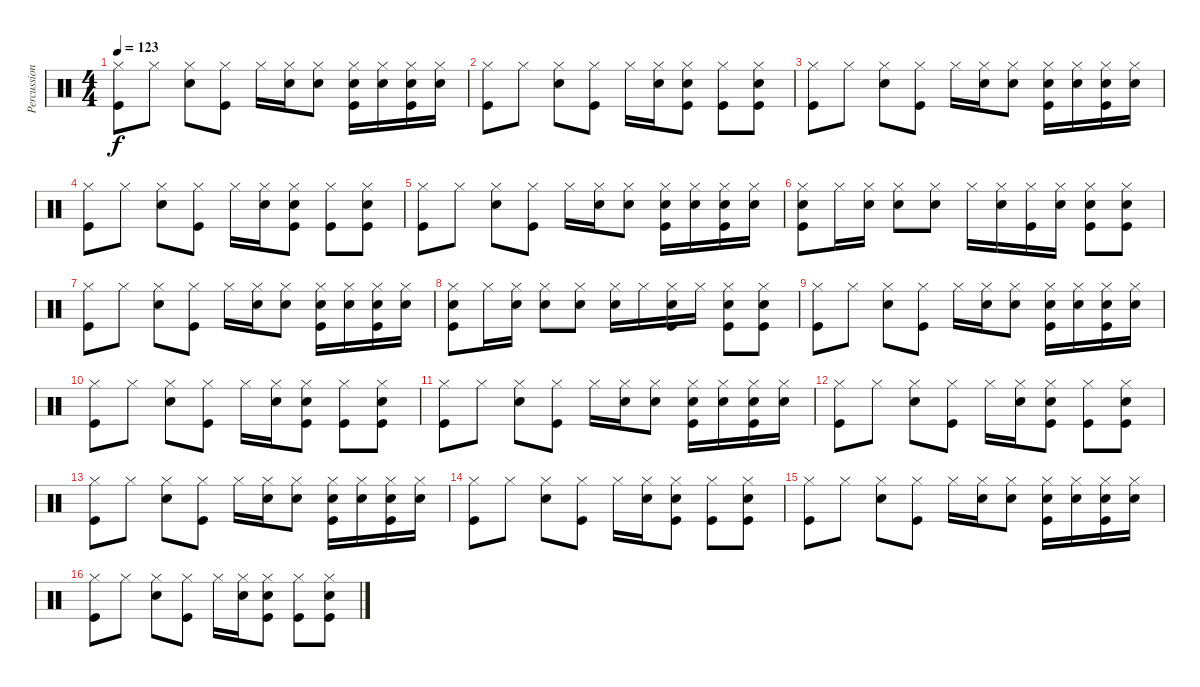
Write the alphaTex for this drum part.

\track ("Percussion" "Percussion") {instrument percussion}
\staff {score}
\articulation defaults
\ts (4 4)
\tempo 123
\clef neutral
\ks c
("Hi-Hat (closed)" "Kick (hit)").8{dy f} "Hi-Hat (closed)".8 ("Hi-Hat (closed)" "Snare (hit) 2").8 ("Hi-Hat (closed)" "Kick (hit)").8 "Hi-Hat (closed)".16 ("Hi-Hat (closed)" "Snare (hit) 2").16 ("Hi-Hat (closed)" "Snare (hit) 2").8 ("Hi-Hat (closed)" "Snare (hit) 2" "Kick (hit)").16 ("Hi-Hat (closed)" "Snare (hit) 2").16 ("Hi-Hat (closed)" "Snare (hit) 2" "Kick (hit)").16 ("Hi-Hat (closed)" "Snare (hit) 2").16 |
("Hi-Hat (closed)" "Kick (hit)").8 "Hi-Hat (closed)".8 ("Hi-Hat (closed)" "Snare (hit) 2").8 ("Hi-Hat (closed)" "Kick (hit)").8 "Hi-Hat (closed)".16 ("Hi-Hat (closed)" "Snare (hit) 2").16 ("Hi-Hat (closed)" "Snare (hit) 2" "Kick (hit)").8 ("Hi-Hat (closed)" "Kick (hit)").8 ("Hi-Hat (closed)" "Snare (hit) 2" "Kick (hit)").8 |
("Hi-Hat (closed)" "Kick (hit)").8 "Hi-Hat (closed)".8 ("Hi-Hat (closed)" "Snare (hit) 2").8 ("Hi-Hat (closed)" "Kick (hit)").8 "Hi-Hat (closed)".16 ("Hi-Hat (closed)" "Snare (hit) 2").16 ("Hi-Hat (closed)" "Snare (hit) 2").8 ("Hi-Hat (closed)" "Snare (hit) 2" "Kick (hit)").16 ("Hi-Hat (closed)" "Snare (hit) 2").16 ("Hi-Hat (closed)" "Snare (hit) 2" "Kick (hit)").16 ("Hi-Hat (closed)" "Snare (hit) 2").16 |
("Hi-Hat (closed)" "Kick (hit)").8 "Hi-Hat (closed)".8 ("Hi-Hat (closed)" "Snare (hit) 2").8 ("Hi-Hat (closed)" "Kick (hit)").8 "Hi-Hat (closed)".16 ("Hi-Hat (closed)" "Snare (hit) 2").16 ("Hi-Hat (closed)" "Snare (hit) 2" "Kick (hit)").8 ("Hi-Hat (closed)" "Kick (hit)").8 ("Hi-Hat (closed)" "Snare (hit) 2" "Kick (hit)").8 |
("Hi-Hat (closed)" "Kick (hit)").8 "Hi-Hat (closed)".8 ("Hi-Hat (closed)" "Snare (hit) 2").8 ("Hi-Hat (closed)" "Kick (hit)").8 "Hi-Hat (closed)".16 ("Hi-Hat (closed)" "Snare (hit) 2").16 ("Hi-Hat (closed)" "Snare (hit) 2").8 ("Hi-Hat (closed)" "Snare (hit) 2" "Kick (hit)").16 ("Hi-Hat (closed)" "Snare (hit) 2").16 ("Hi-Hat (closed)" "Snare (hit) 2" "Kick (hit)").16 ("Hi-Hat (closed)" "Snare (hit) 2").16 |
("Hi-Hat (closed)" "Snare (hit) 2" "Kick (hit)").8 "Hi-Hat (closed)".16 ("Hi-Hat (closed)" "Snare (hit) 2").16 ("Hi-Hat (closed)" "Snare (hit) 2").8 ("Hi-Hat (closed)" "Snare (hit) 2").8 "Hi-Hat (closed)".16 ("Hi-Hat (closed)" "Snare (hit) 2").16 ("Hi-Hat (closed)" "Kick (hit)").16 ("Hi-Hat (closed)" "Snare (hit) 2").16 ("Hi-Hat (closed)" "Snare (hit) 2" "Kick (hit)").8 ("Hi-Hat (closed)" "Snare (hit) 2" "Kick (hit)").8 |
("Hi-Hat (closed)" "Kick (hit)").8 "Hi-Hat (closed)".8 ("Hi-Hat (closed)" "Snare (hit) 2").8 ("Hi-Hat (closed)" "Kick (hit)").8 "Hi-Hat (closed)".16 ("Hi-Hat (closed)" "Snare (hit) 2").16 ("Hi-Hat (closed)" "Snare (hit) 2").8 ("Hi-Hat (closed)" "Snare (hit) 2" "Kick (hit)").16 ("Hi-Hat (closed)" "Snare (hit) 2").16 ("Hi-Hat (closed)" "Snare (hit) 2" "Kick (hit)").16 ("Hi-Hat (closed)" "Snare (hit) 2").16 |
("Hi-Hat (closed)" "Snare (hit) 2" "Kick (hit)").8 "Hi-Hat (closed)".16 ("Hi-Hat (closed)" "Snare (hit) 2").16 ("Hi-Hat (closed)" "Snare (hit) 2").8 ("Hi-Hat (closed)" "Snare (hit) 2").8 ("Hi-Hat (closed)" "Snare (hit) 2").16 "Hi-Hat (closed)".16 ("Hi-Hat (closed)" "Snare (hit) 2" "Kick (hit)").16 "Hi-Hat (closed)".16 ("Hi-Hat (closed)" "Snare (hit) 2" "Kick (hit)").8 ("Hi-Hat (closed)" "Snare (hit) 2" "Kick (hit)").8 |
("Hi-Hat (closed)" "Kick (hit)").8 "Hi-Hat (closed)".8 ("Hi-Hat (closed)" "Snare (hit) 2").8 ("Hi-Hat (closed)" "Kick (hit)").8 "Hi-Hat (closed)".16 ("Hi-Hat (closed)" "Snare (hit) 2").16 ("Hi-Hat (closed)" "Snare (hit) 2").8 ("Hi-Hat (closed)" "Snare (hit) 2" "Kick (hit)").16 ("Hi-Hat (closed)" "Snare (hit) 2").16 ("Hi-Hat (closed)" "Snare (hit) 2" "Kick (hit)").16 ("Hi-Hat (closed)" "Snare (hit) 2").16 |
("Hi-Hat (closed)" "Kick (hit)").8 "Hi-Hat (closed)".8 ("Hi-Hat (closed)" "Snare (hit) 2").8 ("Hi-Hat (closed)" "Kick (hit)").8 "Hi-Hat (closed)".16 ("Hi-Hat (closed)" "Snare (hit) 2").16 ("Hi-Hat (closed)" "Snare (hit) 2" "Kick (hit)").8 ("Hi-Hat (closed)" "Kick (hit)").8 ("Hi-Hat (closed)" "Snare (hit) 2" "Kick (hit)").8 |
("Hi-Hat (closed)" "Kick (hit)").8 "Hi-Hat (closed)".8 ("Hi-Hat (closed)" "Snare (hit) 2").8 ("Hi-Hat (closed)" "Kick (hit)").8 "Hi-Hat (closed)".16 ("Hi-Hat (closed)" "Snare (hit) 2").16 ("Hi-Hat (closed)" "Snare (hit) 2").8 ("Hi-Hat (closed)" "Snare (hit) 2" "Kick (hit)").16 ("Hi-Hat (closed)" "Snare (hit) 2").16 ("Hi-Hat (closed)" "Snare (hit) 2" "Kick (hit)").16 ("Hi-Hat (closed)" "Snare (hit) 2").16 |
("Hi-Hat (closed)" "Kick (hit)").8 "Hi-Hat (closed)".8 ("Hi-Hat (closed)" "Snare (hit) 2").8 ("Hi-Hat (closed)" "Kick (hit)").8 "Hi-Hat (closed)".16 ("Hi-Hat (closed)" "Snare (hit) 2").16 ("Hi-Hat (closed)" "Snare (hit) 2" "Kick (hit)").8 ("Hi-Hat (closed)" "Kick (hit)").8 ("Hi-Hat (closed)" "Snare (hit) 2" "Kick (hit)").8 |
("Hi-Hat (closed)" "Kick (hit)").8 "Hi-Hat (closed)".8 ("Hi-Hat (closed)" "Snare (hit) 2").8 ("Hi-Hat (closed)" "Kick (hit)").8 "Hi-Hat (closed)".16 ("Hi-Hat (closed)" "Snare (hit) 2").16 ("Hi-Hat (closed)" "Snare (hit) 2").8 ("Hi-Hat (closed)" "Snare (hit) 2" "Kick (hit)").16 ("Hi-Hat (closed)" "Snare (hit) 2").16 ("Hi-Hat (closed)" "Snare (hit) 2" "Kick (hit)").16 ("Hi-Hat (closed)" "Snare (hit) 2").16 |
("Hi-Hat (closed)" "Kick (hit)").8 "Hi-Hat (closed)".8 ("Hi-Hat (closed)" "Snare (hit) 2").8 ("Hi-Hat (closed)" "Kick (hit)").8 "Hi-Hat (closed)".16 ("Hi-Hat (closed)" "Snare (hit) 2").16 ("Hi-Hat (closed)" "Snare (hit) 2" "Kick (hit)").8 ("Hi-Hat (closed)" "Kick (hit)").8 ("Hi-Hat (closed)" "Snare (hit) 2" "Kick (hit)").8 |
("Hi-Hat (closed)" "Kick (hit)").8 "Hi-Hat (closed)".8 ("Hi-Hat (closed)" "Snare (hit) 2").8 ("Hi-Hat (closed)" "Kick (hit)").8 "Hi-Hat (closed)".16 ("Hi-Hat (closed)" "Snare (hit) 2").16 ("Hi-Hat (closed)" "Snare (hit) 2").8 ("Hi-Hat (closed)" "Snare (hit) 2" "Kick (hit)").16 ("Hi-Hat (closed)" "Snare (hit) 2").16 ("Hi-Hat (closed)" "Snare (hit) 2" "Kick (hit)").16 ("Hi-Hat (closed)" "Snare (hit) 2").16 |
("Hi-Hat (closed)" "Kick (hit)").8 "Hi-Hat (closed)".8 ("Hi-Hat (closed)" "Snare (hit) 2").8 ("Hi-Hat (closed)" "Kick (hit)").8 "Hi-Hat (closed)".16 ("Hi-Hat (closed)" "Snare (hit) 2").16 ("Hi-Hat (closed)" "Snare (hit) 2" "Kick (hit)").8 ("Hi-Hat (closed)" "Kick (hit)").8 ("Hi-Hat (closed)" "Snare (hit) 2" "Kick (hit)").8
